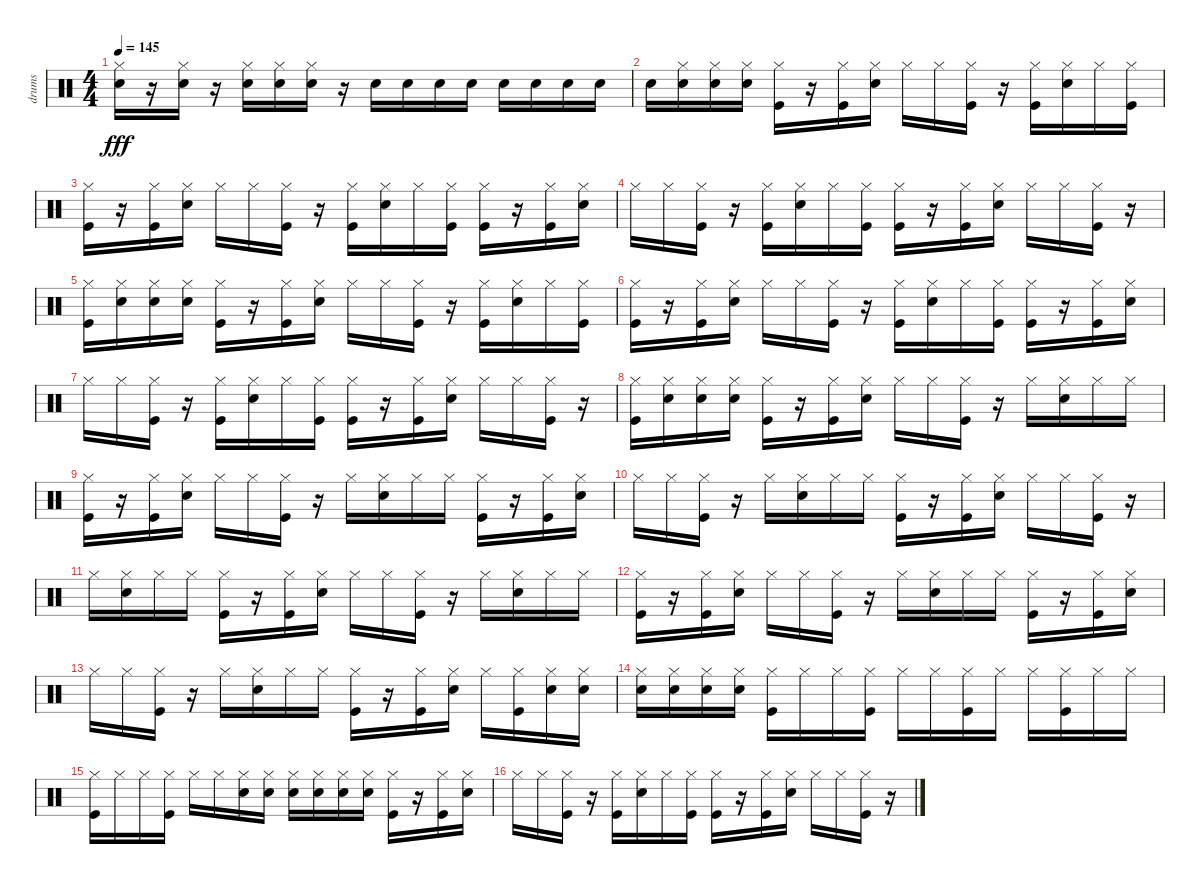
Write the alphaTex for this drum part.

\track ("drums" "drums") {instrument percussion}
\staff {score}
\articulation defaults
\ts (4 4)
\tempo 145
\clef neutral
\ks c
("Snare (hit) 2" "Hi-Hat (closed)").16{dy fff} r.16 ("Snare (hit) 2" "Hi-Hat (closed)").16 r.16 ("Snare (hit) 2" "Hi-Hat (closed)").16 ("Snare (hit) 2" "Hi-Hat (closed)").16 ("Snare (hit) 2" "Hi-Hat (closed)").16 r.16 "Snare (hit) 2".16 "Snare (hit) 2".16 "Snare (hit) 2".16 "Snare (hit) 2".16 "Snare (hit) 2".16 "Snare (hit) 2".16 "Snare (hit) 2".16 "Snare (hit) 2".16 |
"Snare (hit) 2".16 ("Snare (hit) 2" "Hi-Hat (closed)").16 ("Snare (hit) 2" "Hi-Hat (closed)").16 ("Snare (hit) 2" "Hi-Hat (closed)").16 ("Kick (hit)" "Hi-Hat (closed)").16 r.16 ("Kick (hit)" "Hi-Hat (closed)").16 ("Snare (hit) 2" "Hi-Hat (closed)").16 "Hi-Hat (closed)".16 "Hi-Hat (closed)".16 ("Kick (hit)" "Hi-Hat (closed)").16 r.16 ("Kick (hit)" "Hi-Hat (closed)").16 ("Snare (hit) 2" "Hi-Hat (closed)").16 "Hi-Hat (closed)".16 ("Kick (hit)" "Hi-Hat (closed)").16 |
("Kick (hit)" "Hi-Hat (closed)").16 r.16 ("Kick (hit)" "Hi-Hat (closed)").16 ("Snare (hit) 2" "Hi-Hat (closed)").16 "Hi-Hat (closed)".16 "Hi-Hat (closed)".16 ("Kick (hit)" "Hi-Hat (closed)").16 r.16 ("Kick (hit)" "Hi-Hat (closed)").16 ("Snare (hit) 2" "Hi-Hat (closed)").16 "Hi-Hat (closed)".16 ("Kick (hit)" "Hi-Hat (closed)").16 ("Kick (hit)" "Hi-Hat (closed)").16 r.16 ("Kick (hit)" "Hi-Hat (closed)").16 ("Snare (hit) 2" "Hi-Hat (closed)").16 |
"Hi-Hat (closed)".16 "Hi-Hat (closed)".16 ("Kick (hit)" "Hi-Hat (closed)").16 r.16 ("Kick (hit)" "Hi-Hat (closed)").16 ("Snare (hit) 2" "Hi-Hat (closed)").16 "Hi-Hat (closed)".16 ("Kick (hit)" "Hi-Hat (closed)").16 ("Kick (hit)" "Hi-Hat (closed)").16 r.16 ("Kick (hit)" "Hi-Hat (closed)").16 ("Snare (hit) 2" "Hi-Hat (closed)").16 "Hi-Hat (closed)".16 "Hi-Hat (closed)".16 ("Kick (hit)" "Hi-Hat (closed)").16 r.16 |
("Kick (hit)" "Hi-Hat (closed)").16 ("Snare (hit) 2" "Hi-Hat (closed)").16 ("Snare (hit) 2" "Hi-Hat (closed)").16 ("Snare (hit) 2" "Hi-Hat (closed)").16 ("Kick (hit)" "Hi-Hat (closed)").16 r.16 ("Kick (hit)" "Hi-Hat (closed)").16 ("Snare (hit) 2" "Hi-Hat (closed)").16 "Hi-Hat (closed)".16 "Hi-Hat (closed)".16 ("Kick (hit)" "Hi-Hat (closed)").16 r.16 ("Kick (hit)" "Hi-Hat (closed)").16 ("Snare (hit) 2" "Hi-Hat (closed)").16 "Hi-Hat (closed)".16 ("Kick (hit)" "Hi-Hat (closed)").16 |
("Kick (hit)" "Hi-Hat (closed)").16 r.16 ("Kick (hit)" "Hi-Hat (closed)").16 ("Snare (hit) 2" "Hi-Hat (closed)").16 "Hi-Hat (closed)".16 "Hi-Hat (closed)".16 ("Kick (hit)" "Hi-Hat (closed)").16 r.16 ("Kick (hit)" "Hi-Hat (closed)").16 ("Snare (hit) 2" "Hi-Hat (closed)").16 "Hi-Hat (closed)".16 ("Kick (hit)" "Hi-Hat (closed)").16 ("Kick (hit)" "Hi-Hat (closed)").16 r.16 ("Kick (hit)" "Hi-Hat (closed)").16 ("Snare (hit) 2" "Hi-Hat (closed)").16 |
"Hi-Hat (closed)".16 "Hi-Hat (closed)".16 ("Kick (hit)" "Hi-Hat (closed)").16 r.16 ("Kick (hit)" "Hi-Hat (closed)").16 ("Snare (hit) 2" "Hi-Hat (closed)").16 "Hi-Hat (closed)".16 ("Kick (hit)" "Hi-Hat (closed)").16 ("Kick (hit)" "Hi-Hat (closed)").16 r.16 ("Kick (hit)" "Hi-Hat (closed)").16 ("Snare (hit) 2" "Hi-Hat (closed)").16 "Hi-Hat (closed)".16 "Hi-Hat (closed)".16 ("Kick (hit)" "Hi-Hat (closed)").16 r.16 |
("Kick (hit)" "Hi-Hat (closed)").16 ("Snare (hit) 2" "Hi-Hat (closed)").16 ("Snare (hit) 2" "Hi-Hat (closed)").16 ("Snare (hit) 2" "Hi-Hat (closed)").16 ("Kick (hit)" "Hi-Hat (closed)").16 r.16 ("Kick (hit)" "Hi-Hat (closed)").16 ("Snare (hit) 2" "Hi-Hat (closed)").16 "Hi-Hat (closed)".16 "Hi-Hat (closed)".16 ("Kick (hit)" "Hi-Hat (closed)").16 r.16 "Hi-Hat (closed)".16 ("Snare (hit) 2" "Hi-Hat (closed)").16 "Hi-Hat (closed)".16 "Hi-Hat (closed)".16 |
("Kick (hit)" "Hi-Hat (closed)").16 r.16 ("Kick (hit)" "Hi-Hat (closed)").16 ("Snare (hit) 2" "Hi-Hat (closed)").16 "Hi-Hat (closed)".16 "Hi-Hat (closed)".16 ("Kick (hit)" "Hi-Hat (closed)").16 r.16 "Hi-Hat (closed)".16 ("Snare (hit) 2" "Hi-Hat (closed)").16 "Hi-Hat (closed)".16 "Hi-Hat (closed)".16 ("Kick (hit)" "Hi-Hat (closed)").16 r.16 ("Kick (hit)" "Hi-Hat (closed)").16 ("Snare (hit) 2" "Hi-Hat (closed)").16 |
"Hi-Hat (closed)".16 "Hi-Hat (closed)".16 ("Kick (hit)" "Hi-Hat (closed)").16 r.16 "Hi-Hat (closed)".16 ("Snare (hit) 2" "Hi-Hat (closed)").16 "Hi-Hat (closed)".16 "Hi-Hat (closed)".16 ("Kick (hit)" "Hi-Hat (closed)").16 r.16 ("Kick (hit)" "Hi-Hat (closed)").16 ("Snare (hit) 2" "Hi-Hat (closed)").16 "Hi-Hat (closed)".16 "Hi-Hat (closed)".16 ("Kick (hit)" "Hi-Hat (closed)").16 r.16 |
"Hi-Hat (closed)".16 ("Snare (hit) 2" "Hi-Hat (closed)").16 "Hi-Hat (closed)".16 "Hi-Hat (closed)".16 ("Kick (hit)" "Hi-Hat (closed)").16 r.16 ("Kick (hit)" "Hi-Hat (closed)").16 ("Snare (hit) 2" "Hi-Hat (closed)").16 "Hi-Hat (closed)".16 "Hi-Hat (closed)".16 ("Kick (hit)" "Hi-Hat (closed)").16 r.16 "Hi-Hat (closed)".16 ("Snare (hit) 2" "Hi-Hat (closed)").16 "Hi-Hat (closed)".16 "Hi-Hat (closed)".16 |
("Kick (hit)" "Hi-Hat (closed)").16 r.16 ("Kick (hit)" "Hi-Hat (closed)").16 ("Snare (hit) 2" "Hi-Hat (closed)").16 "Hi-Hat (closed)".16 "Hi-Hat (closed)".16 ("Kick (hit)" "Hi-Hat (closed)").16 r.16 "Hi-Hat (closed)".16 ("Snare (hit) 2" "Hi-Hat (closed)").16 "Hi-Hat (closed)".16 "Hi-Hat (closed)".16 ("Kick (hit)" "Hi-Hat (closed)").16 r.16 ("Kick (hit)" "Hi-Hat (closed)").16 ("Snare (hit) 2" "Hi-Hat (closed)").16 |
"Hi-Hat (closed)".16 "Hi-Hat (closed)".16 ("Kick (hit)" "Hi-Hat (closed)").16 r.16 "Hi-Hat (closed)".16 ("Snare (hit) 2" "Hi-Hat (closed)").16 "Hi-Hat (closed)".16 "Hi-Hat (closed)".16 ("Kick (hit)" "Hi-Hat (closed)").16 r.16 ("Kick (hit)" "Hi-Hat (closed)").16 ("Snare (hit) 2" "Hi-Hat (closed)").16 "Hi-Hat (closed)".16 ("Kick (hit)" "Hi-Hat (closed)").16 ("Snare (hit) 2" "Hi-Hat (closed)").16 ("Snare (hit) 2" "Hi-Hat (closed)").16 |
("Snare (hit) 2" "Hi-Hat (closed)").16 ("Snare (hit) 2" "Hi-Hat (closed)").16 ("Snare (hit) 2" "Hi-Hat (closed)").16 ("Snare (hit) 2" "Hi-Hat (closed)").16 ("Kick (hit)" "Hi-Hat (closed)").16 "Hi-Hat (closed)".16 "Hi-Hat (closed)".16 ("Kick (hit)" "Hi-Hat (closed)").16 "Hi-Hat (closed)".16 "Hi-Hat (closed)".16 ("Kick (hit)" "Hi-Hat (closed)").16 "Hi-Hat (closed)".16 "Hi-Hat (closed)".16 ("Kick (hit)" "Hi-Hat (closed)").16 "Hi-Hat (closed)".16 "Hi-Hat (closed)".16 |
("Kick (hit)" "Hi-Hat (closed)").16 "Hi-Hat (closed)".16 "Hi-Hat (closed)".16 ("Kick (hit)" "Hi-Hat (closed)").16 "Hi-Hat (closed)".16 "Hi-Hat (closed)".16 ("Snare (hit) 2" "Hi-Hat (closed)").16 ("Snare (hit) 2" "Hi-Hat (closed)").16 ("Snare (hit) 2" "Hi-Hat (closed)").16 ("Snare (hit) 2" "Hi-Hat (closed)").16 ("Snare (hit) 2" "Hi-Hat (closed)").16 ("Snare (hit) 2" "Hi-Hat (closed)").16 ("Kick (hit)" "Hi-Hat (closed)").16 r.16 ("Kick (hit)" "Hi-Hat (closed)").16 ("Snare (hit) 2" "Hi-Hat (closed)").16 |
"Hi-Hat (closed)".16 "Hi-Hat (closed)".16 ("Kick (hit)" "Hi-Hat (closed)").16 r.16 ("Kick (hit)" "Hi-Hat (closed)").16 ("Snare (hit) 2" "Hi-Hat (closed)").16 "Hi-Hat (closed)".16 ("Kick (hit)" "Hi-Hat (closed)").16 ("Kick (hit)" "Hi-Hat (closed)").16 r.16 ("Kick (hit)" "Hi-Hat (closed)").16 ("Snare (hit) 2" "Hi-Hat (closed)").16 "Hi-Hat (closed)".16 "Hi-Hat (closed)".16 ("Kick (hit)" "Hi-Hat (closed)").16 r.16
